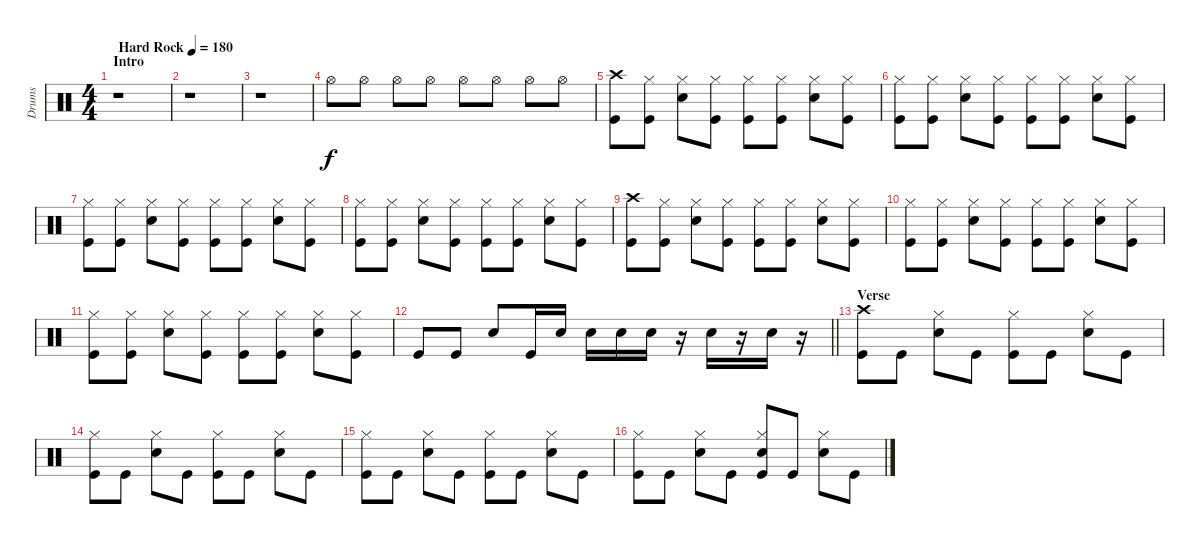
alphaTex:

\track ("Drums" "Drums") {instrument percussion}
\staff {score}
\articulation defaults
\ts (4 4)
\section ("" "Intro")
\tempo (180 "Hard Rock")
\clef neutral
\ks c
r.1{dy f} |
r.1 |
r.1 |
"Hi-Hat (open)".8 "Hi-Hat (open)".8 "Hi-Hat (open)".8 "Hi-Hat (open)".8 "Hi-Hat (open)".8 "Hi-Hat (open)".8 "Hi-Hat (open)".8 "Hi-Hat (open)".8 |
("Crash high (hit)" "Kick (hit)").8 ("Hi-Hat (closed)" "Kick (hit)").8 ("Hi-Hat (closed)" "Snare (hit) 2").8 ("Hi-Hat (closed)" "Kick (hit)").8 ("Hi-Hat (closed)" "Kick (hit)").8 ("Hi-Hat (closed)" "Kick (hit)").8 ("Hi-Hat (closed)" "Snare (hit) 2").8 ("Hi-Hat (closed)" "Kick (hit)").8 |
("Hi-Hat (closed)" "Kick (hit)").8 ("Hi-Hat (closed)" "Kick (hit)").8 ("Hi-Hat (closed)" "Snare (hit) 2").8 ("Hi-Hat (closed)" "Kick (hit)").8 ("Hi-Hat (closed)" "Kick (hit)").8 ("Hi-Hat (closed)" "Kick (hit)").8 ("Hi-Hat (closed)" "Snare (hit) 2").8 ("Hi-Hat (closed)" "Kick (hit)").8 |
("Hi-Hat (closed)" "Kick (hit)").8 ("Hi-Hat (closed)" "Kick (hit)").8 ("Hi-Hat (closed)" "Snare (hit) 2").8 ("Hi-Hat (closed)" "Kick (hit)").8 ("Hi-Hat (closed)" "Kick (hit)").8 ("Hi-Hat (closed)" "Kick (hit)").8 ("Hi-Hat (closed)" "Snare (hit) 2").8 ("Hi-Hat (closed)" "Kick (hit)").8 |
("Hi-Hat (closed)" "Kick (hit)").8 ("Hi-Hat (closed)" "Kick (hit)").8 ("Hi-Hat (closed)" "Snare (hit) 2").8 ("Hi-Hat (closed)" "Kick (hit)").8 ("Hi-Hat (closed)" "Kick (hit)").8 ("Hi-Hat (closed)" "Kick (hit)").8 ("Hi-Hat (closed)" "Snare (hit) 2").8 ("Hi-Hat (closed)" "Kick (hit)").8 |
("Crash high (hit)" "Kick (hit)").8 ("Hi-Hat (closed)" "Kick (hit)").8 ("Hi-Hat (closed)" "Snare (hit) 2").8 ("Hi-Hat (closed)" "Kick (hit)").8 ("Hi-Hat (closed)" "Kick (hit)").8 ("Hi-Hat (closed)" "Kick (hit)").8 ("Hi-Hat (closed)" "Snare (hit) 2").8 ("Hi-Hat (closed)" "Kick (hit)").8 |
("Hi-Hat (closed)" "Kick (hit)").8 ("Hi-Hat (closed)" "Kick (hit)").8 ("Hi-Hat (closed)" "Snare (hit) 2").8 ("Hi-Hat (closed)" "Kick (hit)").8 ("Hi-Hat (closed)" "Kick (hit)").8 ("Hi-Hat (closed)" "Kick (hit)").8 ("Hi-Hat (closed)" "Snare (hit) 2").8 ("Hi-Hat (closed)" "Kick (hit)").8 |
("Hi-Hat (closed)" "Kick (hit)").8 ("Hi-Hat (closed)" "Kick (hit)").8 ("Hi-Hat (closed)" "Snare (hit) 2").8 ("Hi-Hat (closed)" "Kick (hit)").8 ("Hi-Hat (closed)" "Kick (hit)").8 ("Hi-Hat (closed)" "Kick (hit)").8 ("Hi-Hat (closed)" "Snare (hit) 2").8 ("Hi-Hat (closed)" "Kick (hit)").8 |
\barLineRight lightlight "Kick (hit)".8 "Kick (hit)".8 "Snare (hit) 2".8 "Kick (hit)".16 "Snare (hit) 2".16 "Snare (hit) 2".16 "Snare (hit) 2".16 "Snare (hit) 2".16
r.16 "Snare (hit) 2".16 r.16 "Snare (hit) 2".16 r.16 |
\section ("" "Verse")
("Crash high (hit)" "Kick (hit)").8 "Kick (hit)".8 ("Hi-Hat (closed)" "Snare (hit) 2").8 "Kick (hit)".8 ("Hi-Hat (closed)" "Kick (hit)").8 "Kick (hit)".8 ("Hi-Hat (closed)" "Snare (hit) 2").8 "Kick (hit)".8 |
("Hi-Hat (closed)" "Kick (hit)").8 "Kick (hit)".8 ("Hi-Hat (closed)" "Snare (hit) 2").8 "Kick (hit)".8 ("Hi-Hat (closed)" "Kick (hit)").8 "Kick (hit)".8 ("Hi-Hat (closed)" "Snare (hit) 2").8 "Kick (hit)".8 |
("Hi-Hat (closed)" "Kick (hit)").8 "Kick (hit)".8 ("Hi-Hat (closed)" "Snare (hit) 2").8 "Kick (hit)".8 ("Hi-Hat (closed)" "Kick (hit)").8 "Kick (hit)".8 ("Hi-Hat (closed)" "Snare (hit) 2").8 "Kick (hit)".8 |
("Hi-Hat (closed)" "Kick (hit)").8 "Kick (hit)".8 ("Hi-Hat (closed)" "Snare (hit) 2").8 "Kick (hit)".8 ("Hi-Hat (closed)" "Snare (hit) 2" "Kick (hit)").8 "Kick (hit)".8 ("Hi-Hat (closed)" "Snare (hit) 2").8 "Kick (hit)".8
